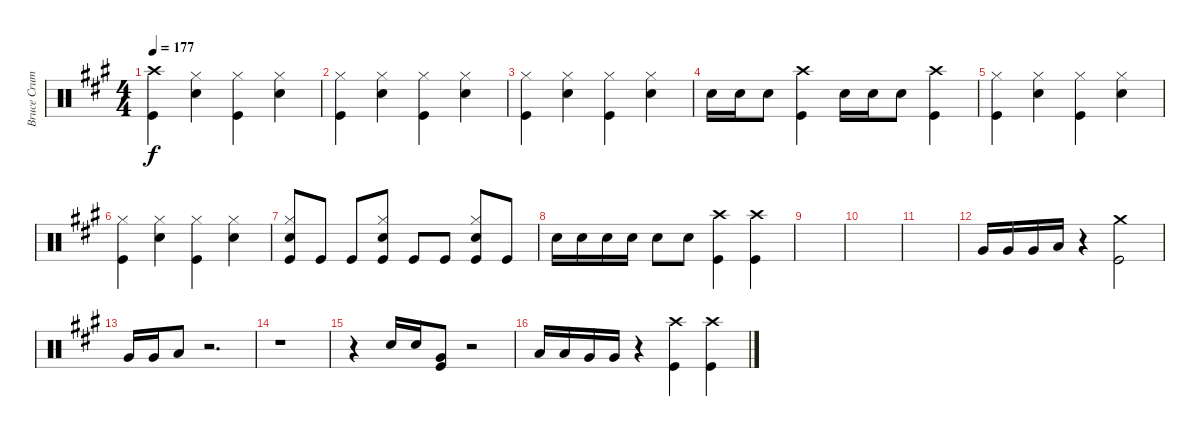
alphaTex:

\track ("Bruce Crump Drums" "Bruce Crum") {instrument percussion}
\staff {score}
\articulation defaults
\ts (4 4)
\tempo 177
\clef neutral
\ks a
("Crash high (hit)" "Kick (hit)").4{dy f} ("Hi-Hat (closed)" "Snare (hit) 2").4 ("Hi-Hat (closed)" "Kick (hit)").4 ("Hi-Hat (closed)" "Snare (hit) 2").4 |
("Hi-Hat (closed)" "Kick (hit)").4 ("Hi-Hat (closed)" "Snare (hit) 2").4 ("Hi-Hat (closed)" "Kick (hit)").4 ("Hi-Hat (closed)" "Snare (hit) 2").4 |
("Hi-Hat (closed)" "Kick (hit)").4 ("Hi-Hat (closed)" "Snare (hit) 2").4 ("Hi-Hat (closed)" "Kick (hit)").4 ("Hi-Hat (closed)" "Snare (hit) 2").4 |
"Snare (hit) 2".16 "Snare (hit) 2".16 "Snare (hit) 2".8 ("Crash high (hit)" "Kick (hit)").4 "Snare (hit) 2".16 "Snare (hit) 2".16 "Snare (hit) 2".8 ("Crash high (hit)" "Kick (hit)").4 |
("Hi-Hat (closed)" "Kick (hit)").4 ("Hi-Hat (closed)" "Snare (hit) 2").4 ("Hi-Hat (closed)" "Kick (hit)").4 ("Hi-Hat (closed)" "Snare (hit) 2").4 |
("Hi-Hat (closed)" "Kick (hit)").4 ("Hi-Hat (closed)" "Snare (hit) 2").4 ("Hi-Hat (closed)" "Kick (hit)").4 ("Hi-Hat (closed)" "Snare (hit) 2").4 |
("Hi-Hat (closed)" "Snare (hit) 2" "Kick (hit)").8 "Kick (hit)".8 "Kick (hit)".8 ("Hi-Hat (closed)" "Snare (hit) 2" "Kick (hit)").8 "Kick (hit)".8 "Kick (hit)".8 ("Hi-Hat (closed)" "Snare (hit) 2" "Kick (hit)").8 "Kick (hit)".8 |
"Snare (hit) 2".16 "Snare (hit) 2".16 "Snare (hit) 2".16 "Snare (hit) 2".16 "Snare (hit) 2".8 "Snare (hit) 2".8 ("Crash high (hit)" "Kick (hit)").4 ("Crash high (hit)" "Kick (hit)").4 |
|
|
|
"Very Low Tom (hit)".16 "Very Low Tom (hit)".16 "Very Low Tom (hit)".16 "Low Floor Tom (hit)".16 r.4 ("Crash medium (hit)" "Kick (hit)").2 |
"Very Low Tom (hit)".16 "Very Low Tom (hit)".16 "Low Floor Tom (hit)".8 r.2{d} |
r.1 |
r.4 "Snare (hit) 2".16 "Snare (hit) 2".16 ("Very Low Tom (hit)" "Kick (hit)").8 r.2 |
"Low Tom (hit)".16 "Low Tom (hit)".16 "Very Low Tom (hit)".16 "Very Low Tom (hit)".16 r.4 ("Crash high (hit)" "Kick (hit)").4 ("Crash high (hit)" "Kick (hit)").4
